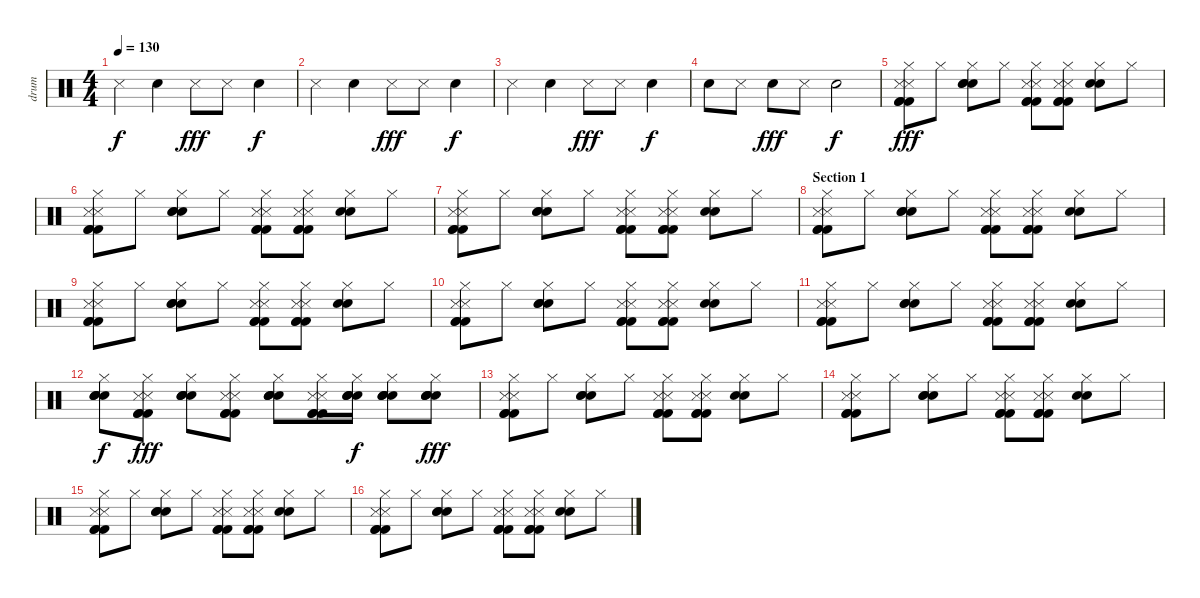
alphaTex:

\track ("drum" "drum") {instrument percussion}
\staff {score}
\articulation defaults
\ts (4 4)
\tempo 130
\clef neutral
\ks c "Metronome (hit)".4{dy f} "Hand Clap (hit)".4 "Metronome (hit)".8{dy fff} "Metronome (hit)".8 "Hand Clap (hit)".4{dy f}
|
"Metronome (hit)".4 "Hand Clap (hit)".4 "Metronome (hit)".8{dy fff} "Metronome (hit)".8 "Hand Clap (hit)".4{dy f} |
"Metronome (hit)".4 "Hand Clap (hit)".4 "Metronome (hit)".8{dy fff} "Metronome (hit)".8 "Hand Clap (hit)".4{dy f} |
"Hand Clap (hit)".8 "Metronome (hit)".8 "Hand Clap (hit)".8{dy fff} "Metronome (hit)".8 "Hand Clap (hit)".2{dy f} |
("Metronome (hit)" "Metronome (hit)" "Kick (hit) 2" "Kick (hit) 2" "Kick (hit) 2" "Hi-Hat (closed)").8{dy fff} "Hi-Hat (closed)".8 ("Electric Snare (hit)" "Electric Snare (hit)" "Electric Snare (hit)" "Hi-Hat (closed)").8 "Hi-Hat (closed)".8 ("Metronome (hit)" "Metronome (hit)" "Kick (hit) 2" "Kick (hit) 2" "Kick (hit) 2" "Hi-Hat (closed)").8 ("Metronome (hit)" "Metronome (hit)" "Kick (hit) 2" "Kick (hit) 2" "Kick (hit) 2" "Hi-Hat (closed)").8 ("Electric Snare (hit)" "Electric Snare (hit)" "Hi-Hat (closed)").8 "Hi-Hat (closed)".8 |
("Metronome (hit)" "Metronome (hit)" "Kick (hit) 2" "Kick (hit) 2" "Kick (hit) 2" "Hi-Hat (closed)").8 "Hi-Hat (closed)".8 ("Electric Snare (hit)" "Electric Snare (hit)" "Electric Snare (hit)" "Hi-Hat (closed)").8 "Hi-Hat (closed)".8 ("Metronome (hit)" "Metronome (hit)" "Kick (hit) 2" "Kick (hit) 2" "Kick (hit) 2" "Hi-Hat (closed)").8 ("Metronome (hit)" "Metronome (hit)" "Kick (hit) 2" "Kick (hit) 2" "Kick (hit) 2" "Hi-Hat (closed)").8 ("Electric Snare (hit)" "Electric Snare (hit)" "Hi-Hat (closed)").8 "Hi-Hat (closed)".8 |
("Metronome (hit)" "Metronome (hit)" "Kick (hit) 2" "Kick (hit) 2" "Kick (hit) 2" "Hi-Hat (closed)").8 "Hi-Hat (closed)".8 ("Electric Snare (hit)" "Electric Snare (hit)" "Electric Snare (hit)" "Hi-Hat (closed)").8 "Hi-Hat (closed)".8 ("Metronome (hit)" "Metronome (hit)" "Kick (hit) 2" "Kick (hit) 2" "Kick (hit) 2" "Hi-Hat (closed)").8 ("Metronome (hit)" "Metronome (hit)" "Kick (hit) 2" "Kick (hit) 2" "Kick (hit) 2" "Hi-Hat (closed)").8 ("Electric Snare (hit)" "Electric Snare (hit)" "Hi-Hat (closed)").8 "Hi-Hat (closed)".8 |
\section ("" "Section 1")
("Metronome (hit)" "Metronome (hit)" "Kick (hit) 2" "Kick (hit) 2" "Kick (hit) 2" "Hi-Hat (closed)").8 "Hi-Hat (closed)".8 ("Electric Snare (hit)" "Electric Snare (hit)" "Electric Snare (hit)" "Hi-Hat (closed)").8 "Hi-Hat (closed)".8 ("Metronome (hit)" "Metronome (hit)" "Kick (hit) 2" "Kick (hit) 2" "Kick (hit) 2" "Hi-Hat (closed)").8 ("Metronome (hit)" "Metronome (hit)" "Kick (hit) 2" "Kick (hit) 2" "Kick (hit) 2" "Hi-Hat (closed)").8 ("Electric Snare (hit)" "Electric Snare (hit)" "Hi-Hat (closed)").8 "Hi-Hat (closed)".8 |
("Metronome (hit)" "Metronome (hit)" "Kick (hit) 2" "Kick (hit) 2" "Kick (hit) 2" "Hi-Hat (closed)").8 "Hi-Hat (closed)".8 ("Electric Snare (hit)" "Electric Snare (hit)" "Electric Snare (hit)" "Hi-Hat (closed)").8 "Hi-Hat (closed)".8 ("Metronome (hit)" "Metronome (hit)" "Kick (hit) 2" "Kick (hit) 2" "Kick (hit) 2" "Hi-Hat (closed)").8 ("Metronome (hit)" "Metronome (hit)" "Kick (hit) 2" "Kick (hit) 2" "Kick (hit) 2" "Hi-Hat (closed)").8 ("Electric Snare (hit)" "Electric Snare (hit)" "Hi-Hat (closed)").8 "Hi-Hat (closed)".8 |
("Metronome (hit)" "Metronome (hit)" "Kick (hit) 2" "Kick (hit) 2" "Kick (hit) 2" "Hi-Hat (closed)").8 "Hi-Hat (closed)".8 ("Electric Snare (hit)" "Electric Snare (hit)" "Electric Snare (hit)" "Hi-Hat (closed)").8 "Hi-Hat (closed)".8 ("Metronome (hit)" "Metronome (hit)" "Kick (hit) 2" "Kick (hit) 2" "Kick (hit) 2" "Hi-Hat (closed)").8 ("Metronome (hit)" "Metronome (hit)" "Kick (hit) 2" "Kick (hit) 2" "Kick (hit) 2" "Hi-Hat (closed)").8 ("Electric Snare (hit)" "Electric Snare (hit)" "Hi-Hat (closed)").8 "Hi-Hat (closed)".8 |
("Metronome (hit)" "Metronome (hit)" "Kick (hit) 2" "Kick (hit) 2" "Kick (hit) 2" "Hi-Hat (closed)").8{txt ""} "Hi-Hat (closed)".8 ("Electric Snare (hit)" "Electric Snare (hit)" "Electric Snare (hit)" "Hi-Hat (closed)").8 "Hi-Hat (closed)".8 ("Metronome (hit)" "Metronome (hit)" "Kick (hit) 2" "Kick (hit) 2" "Kick (hit) 2" "Hi-Hat (closed)").8 ("Metronome (hit)" "Metronome (hit)" "Kick (hit) 2" "Kick (hit) 2" "Kick (hit) 2" "Hi-Hat (closed)").8 ("Electric Snare (hit)" "Electric Snare (hit)" "Hi-Hat (closed)").8 "Hi-Hat (closed)".8 |
("Hand Clap (hit)" "Snare (hit) 2" "Snare (hit) 2" "Snare (hit) 2" "Hi-Hat (closed)").8{dy f} ("Metronome (hit)" "Metronome (hit)" "Kick (hit) 2" "Kick (hit) 2" "Kick (hit) 2" "Hi-Hat (closed)").8{txt "" dy fff} ("Hand Clap (hit)" "Snare (hit) 2" "Snare (hit) 2" "Snare (hit) 2" "Hi-Hat (closed)").8 ("Metronome (hit)" "Metronome (hit)" "Kick (hit) 2" "Kick (hit) 2" "Kick (hit) 2" "Hi-Hat (closed)").8 ("Hand Clap (hit)" "Snare (hit) 2" "Snare (hit) 2" "Snare (hit) 2" "Hi-Hat (closed)").8 ("Metronome (hit)" "Metronome (hit)" "Kick (hit) 2" "Kick (hit) 2" "Kick (hit) 2" "Hi-Hat (closed)").16 ("Hand Clap (hit)" "Snare (hit) 2" "Snare (hit) 2" "Snare (hit) 2" "Hi-Hat (closed)").16{dy f} ("Hand Clap (hit)" "Snare (hit) 2" "Snare (hit) 2" "Snare (hit) 2" "Hi-Hat (closed)").8 ("Hand Clap (hit)" "Snare (hit) 2" "Snare (hit) 2" "Snare (hit) 2" "Hi-Hat (closed)").8{dy fff} |
("Metronome (hit)" "Metronome (hit)" "Kick (hit) 2" "Kick (hit) 2" "Kick (hit) 2" "Hi-Hat (closed)").8 "Hi-Hat (closed)".8 ("Electric Snare (hit)" "Electric Snare (hit)" "Electric Snare (hit)" "Hi-Hat (closed)").8 "Hi-Hat (closed)".8 ("Metronome (hit)" "Metronome (hit)" "Kick (hit) 2" "Kick (hit) 2" "Kick (hit) 2" "Hi-Hat (closed)").8 ("Metronome (hit)" "Metronome (hit)" "Kick (hit) 2" "Kick (hit) 2" "Kick (hit) 2" "Hi-Hat (closed)").8 ("Electric Snare (hit)" "Electric Snare (hit)" "Hi-Hat (closed)").8 "Hi-Hat (closed)".8 |
("Metronome (hit)" "Metronome (hit)" "Kick (hit) 2" "Kick (hit) 2" "Kick (hit) 2" "Hi-Hat (closed)").8 "Hi-Hat (closed)".8 ("Electric Snare (hit)" "Electric Snare (hit)" "Electric Snare (hit)" "Hi-Hat (closed)").8 "Hi-Hat (closed)".8 ("Metronome (hit)" "Metronome (hit)" "Kick (hit) 2" "Kick (hit) 2" "Kick (hit) 2" "Hi-Hat (closed)").8 ("Metronome (hit)" "Metronome (hit)" "Kick (hit) 2" "Kick (hit) 2" "Kick (hit) 2" "Hi-Hat (closed)").8 ("Electric Snare (hit)" "Electric Snare (hit)" "Hi-Hat (closed)").8 "Hi-Hat (closed)".8 |
("Metronome (hit)" "Metronome (hit)" "Kick (hit) 2" "Kick (hit) 2" "Kick (hit) 2" "Hi-Hat (closed)").8 "Hi-Hat (closed)".8 ("Electric Snare (hit)" "Electric Snare (hit)" "Electric Snare (hit)" "Hi-Hat (closed)").8 "Hi-Hat (closed)".8 ("Metronome (hit)" "Metronome (hit)" "Kick (hit) 2" "Kick (hit) 2" "Kick (hit) 2" "Hi-Hat (closed)").8 ("Metronome (hit)" "Metronome (hit)" "Kick (hit) 2" "Kick (hit) 2" "Kick (hit) 2" "Hi-Hat (closed)").8 ("Electric Snare (hit)" "Electric Snare (hit)" "Hi-Hat (closed)").8 "Hi-Hat (closed)".8 |
("Metronome (hit)" "Metronome (hit)" "Kick (hit) 2" "Kick (hit) 2" "Kick (hit) 2" "Hi-Hat (closed)").8 "Hi-Hat (closed)".8 ("Electric Snare (hit)" "Electric Snare (hit)" "Electric Snare (hit)" "Hi-Hat (closed)").8 "Hi-Hat (closed)".8 ("Metronome (hit)" "Metronome (hit)" "Kick (hit) 2" "Kick (hit) 2" "Kick (hit) 2" "Hi-Hat (closed)").8 ("Metronome (hit)" "Metronome (hit)" "Kick (hit) 2" "Kick (hit) 2" "Kick (hit) 2" "Hi-Hat (closed)").8 ("Electric Snare (hit)" "Electric Snare (hit)" "Hi-Hat (closed)").8 "Hi-Hat (closed)".8
